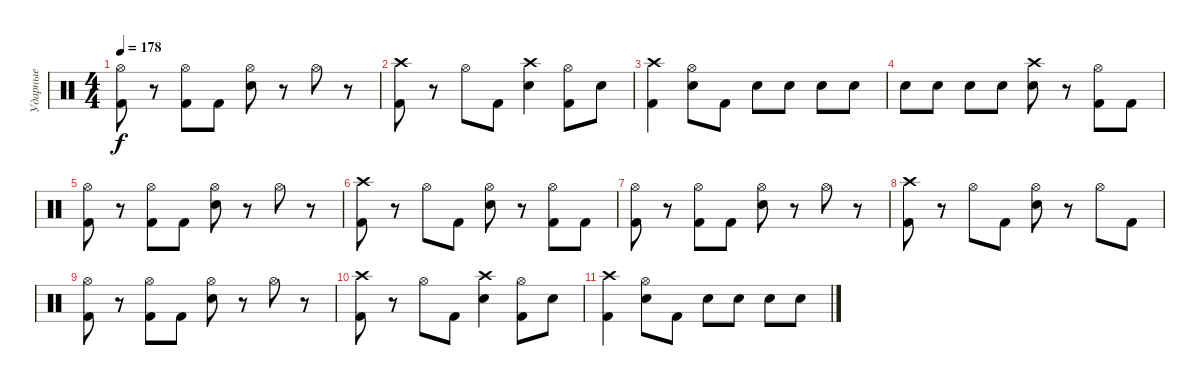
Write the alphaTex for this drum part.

\track ("Ударные" "Ударные") {instrument percussion}
\staff {score}
\articulation defaults
\ts (4 4)
\tempo 178
\clef neutral
\ks c
("Hi-Hat (open)" "Kick (hit) 2").8{dy f} r.8 ("Hi-Hat (open)" "Kick (hit) 2").8 "Kick (hit) 2".8 ("Hi-Hat (open)" "Snare (hit) 2").8 r.8 "Hi-Hat (open)".8 r.8 |
("Crash high (hit)" "Kick (hit) 2").8 r.8 "Hi-Hat (open)".8 "Kick (hit) 2".8 ("Crash high (hit)" "Snare (hit) 2").4 ("Hi-Hat (open)" "Kick (hit) 2").8 "Snare (hit) 2".8 |
("Crash high (hit)" "Kick (hit) 2").4 ("Hi-Hat (open)" "Snare (hit) 2").8 "Kick (hit) 2".8 "Snare (hit) 2".8 "Snare (hit) 2".8 "Snare (hit) 2".8 "Snare (hit) 2".8 |
"Snare (hit) 2".8 "Snare (hit) 2".8 "Snare (hit) 2".8 "Snare (hit) 2".8 ("Crash high (hit)" "Snare (hit) 2").8 r.8 ("Hi-Hat (open)" "Kick (hit) 2").8 "Kick (hit) 2".8 |
("Hi-Hat (open)" "Kick (hit) 2").8 r.8 ("Hi-Hat (open)" "Kick (hit) 2").8 "Kick (hit) 2".8 ("Hi-Hat (open)" "Snare (hit) 2").8 r.8 "Hi-Hat (open)".8 r.8 |
("Crash high (hit)" "Kick (hit) 2").8 r.8 "Hi-Hat (open)".8 "Kick (hit) 2".8 ("Hi-Hat (open)" "Snare (hit) 2").8 r.8 ("Hi-Hat (open)" "Kick (hit) 2").8 "Kick (hit) 2".8 |
("Hi-Hat (open)" "Kick (hit) 2").8 r.8 ("Hi-Hat (open)" "Kick (hit) 2").8 "Kick (hit) 2".8 ("Hi-Hat (open)" "Snare (hit) 2").8 r.8 "Hi-Hat (open)".8 r.8 |
("Crash high (hit)" "Kick (hit) 2").8 r.8 "Hi-Hat (open)".8 "Kick (hit) 2".8 ("Hi-Hat (open)" "Snare (hit) 2").8 r.8 "Hi-Hat (open)".8 "Kick (hit) 2".8 |
("Hi-Hat (open)" "Kick (hit) 2").8 r.8 ("Hi-Hat (open)" "Kick (hit) 2").8 "Kick (hit) 2".8 ("Hi-Hat (open)" "Snare (hit) 2").8 r.8 "Hi-Hat (open)".8 r.8 |
("Crash high (hit)" "Kick (hit) 2").8 r.8 "Hi-Hat (open)".8 "Kick (hit) 2".8 ("Crash high (hit)" "Snare (hit) 2").4 ("Hi-Hat (open)" "Kick (hit) 2").8 "Snare (hit) 2".8 |
("Crash high (hit)" "Kick (hit) 2").4 ("Hi-Hat (open)" "Snare (hit) 2").8 "Kick (hit) 2".8 "Snare (hit) 2".8 "Snare (hit) 2".8 "Snare (hit) 2".8 "Snare (hit) 2".8
